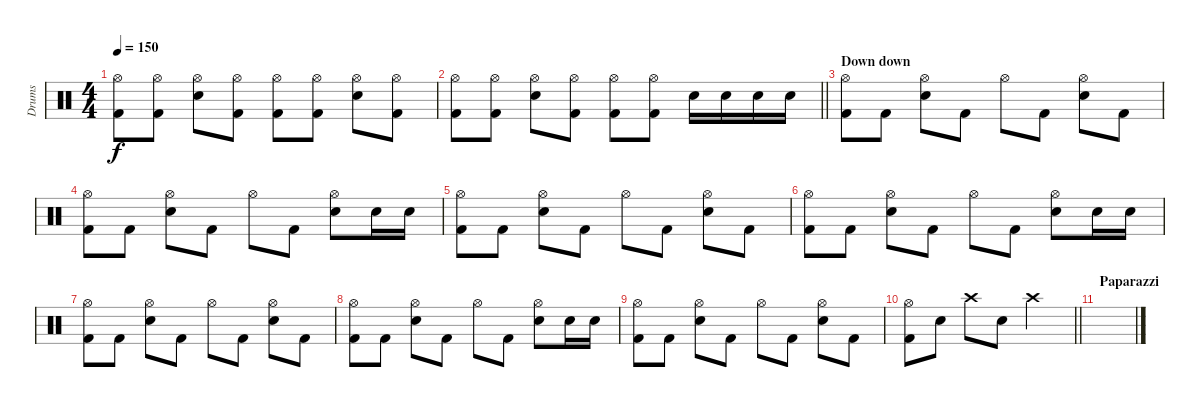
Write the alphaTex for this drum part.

\track ("Drums" "Drums") {instrument percussion}
\staff {score}
\articulation defaults
\ts (4 4)
\tempo 150
\clef neutral
\ks c
("Hi-Hat (open)" "Kick (hit) 2").8{dy f} ("Hi-Hat (open)" "Kick (hit) 2").8 ("Snare (hit) 2" "Hi-Hat (open)").8 ("Hi-Hat (open)" "Kick (hit) 2").8 ("Hi-Hat (open)" "Kick (hit) 2").8 ("Hi-Hat (open)" "Kick (hit) 2").8 ("Snare (hit) 2" "Hi-Hat (open)").8 ("Hi-Hat (open)" "Kick (hit) 2").8 |
\barLineRight lightlight
("Hi-Hat (open)" "Kick (hit) 2").8 ("Hi-Hat (open)" "Kick (hit) 2").8 ("Snare (hit) 2" "Hi-Hat (open)").8 ("Hi-Hat (open)" "Kick (hit) 2").8 ("Hi-Hat (open)" "Kick (hit) 2").8 ("Hi-Hat (open)" "Kick (hit) 2").8 "Snare (hit) 2".16 "Snare (hit) 2".16 "Snare (hit) 2".16 "Snare (hit) 2".16 |
\section ("" "Down down")
("Hi-Hat (open)" "Kick (hit) 2").8 "Kick (hit) 2".8 ("Hi-Hat (open)" "Snare (hit) 2").8 "Kick (hit) 2".8 "Hi-Hat (open)".8 "Kick (hit) 2".8 ("Hi-Hat (open)" "Snare (hit) 2").8 "Kick (hit) 2".8 |
("Hi-Hat (open)" "Kick (hit) 2").8 "Kick (hit) 2".8 ("Hi-Hat (open)" "Snare (hit) 2").8 "Kick (hit) 2".8 "Hi-Hat (open)".8 "Kick (hit) 2".8 ("Hi-Hat (open)" "Snare (hit) 2").8 "Snare (hit) 2".16 "Snare (hit) 2".16 |
("Hi-Hat (open)" "Kick (hit) 2").8 "Kick (hit) 2".8 ("Hi-Hat (open)" "Snare (hit) 2").8 "Kick (hit) 2".8 "Hi-Hat (open)".8 "Kick (hit) 2".8 ("Hi-Hat (open)" "Snare (hit) 2").8 "Kick (hit) 2".8 |
("Hi-Hat (open)" "Kick (hit) 2").8 "Kick (hit) 2".8 ("Hi-Hat (open)" "Snare (hit) 2").8 "Kick (hit) 2".8 "Hi-Hat (open)".8 "Kick (hit) 2".8 ("Hi-Hat (open)" "Snare (hit) 2").8 "Snare (hit) 2".16 "Snare (hit) 2".16 |
("Hi-Hat (open)" "Kick (hit) 2").8 "Kick (hit) 2".8 ("Hi-Hat (open)" "Snare (hit) 2").8 "Kick (hit) 2".8 "Hi-Hat (open)".8 "Kick (hit) 2".8 ("Hi-Hat (open)" "Snare (hit) 2").8 "Kick (hit) 2".8 |
("Hi-Hat (open)" "Kick (hit) 2").8 "Kick (hit) 2".8 ("Hi-Hat (open)" "Snare (hit) 2").8 "Kick (hit) 2".8 "Hi-Hat (open)".8 "Kick (hit) 2".8 ("Hi-Hat (open)" "Snare (hit) 2").8 "Snare (hit) 2".16 "Snare (hit) 2".16 |
("Hi-Hat (open)" "Kick (hit) 2").8 "Kick (hit) 2".8 ("Hi-Hat (open)" "Snare (hit) 2").8 "Kick (hit) 2".8 "Hi-Hat (open)".8 "Kick (hit) 2".8 ("Hi-Hat (open)" "Snare (hit) 2").8 "Kick (hit) 2".8 |
\barLineRight lightlight
("Hi-Hat (open)" "Kick (hit) 2").8 "Snare (hit) 2".8 "Crash high (hit)".8 "Snare (hit) 2".8 "Crash high (hit)".2 |
\section ("" "Paparazzi")
